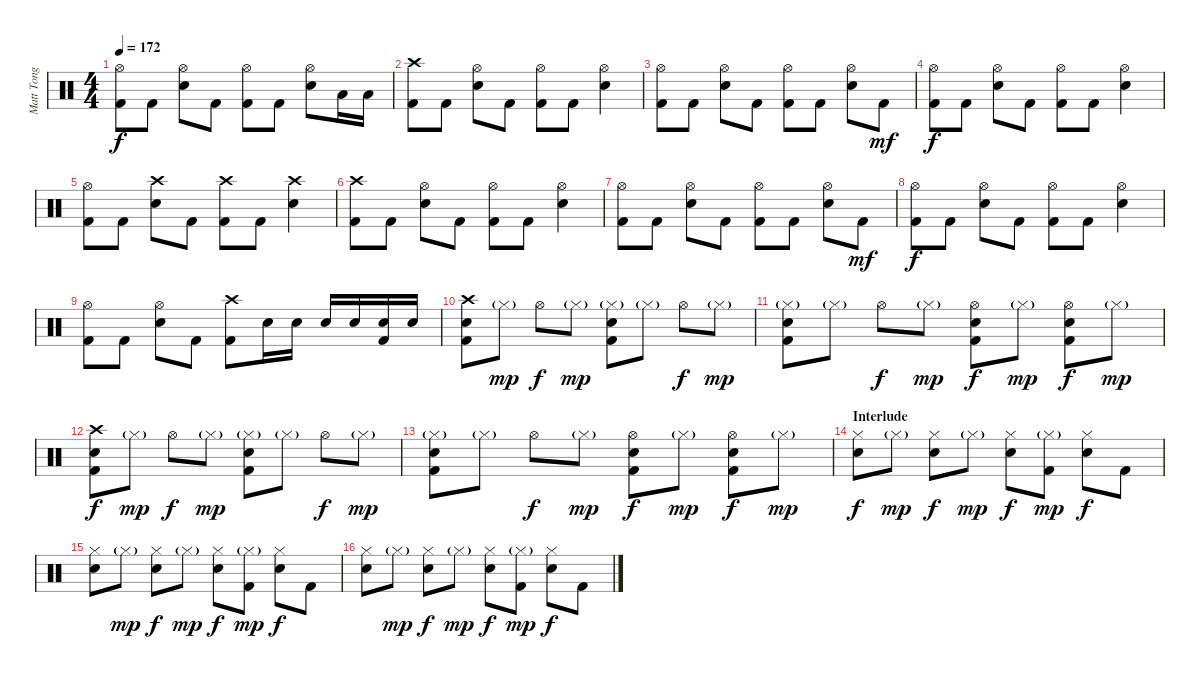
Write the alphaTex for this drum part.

\track ("Matt Tong" "Matt Tong") {instrument percussion}
\staff {score}
\articulation defaults
\ts (4 4)
\tempo 172
\clef neutral
\ks c
("Hi-Hat (open)" "Kick (hit) 2").8{dy f} "Kick (hit) 2".8 ("Hi-Hat (open)" "Snare (hit) 2").8 "Kick (hit) 2".8 ("Hi-Hat (open)" "Kick (hit) 2").8 "Kick (hit) 2".8 ("Hi-Hat (open)" "Snare (hit) 2").8 "Low Tom (hit)".16 "Low Tom (hit)".16 |
("Crash high (hit)" "Kick (hit) 2").8 "Kick (hit) 2".8 ("Hi-Hat (open)" "Snare (hit) 2").8 "Kick (hit) 2".8 ("Hi-Hat (open)" "Kick (hit) 2").8 "Kick (hit) 2".8 ("Hi-Hat (open)" "Snare (hit) 2").4 |
("Hi-Hat (open)" "Kick (hit) 2").8 "Kick (hit) 2".8 ("Hi-Hat (open)" "Snare (hit) 2").8 "Kick (hit) 2".8 ("Hi-Hat (open)" "Kick (hit) 2").8 "Kick (hit) 2".8 ("Hi-Hat (open)" "Snare (hit) 2").8 "Kick (hit) 2".8{dy mf} |
("Hi-Hat (open)" "Kick (hit) 2").8{dy f} "Kick (hit) 2".8 ("Hi-Hat (open)" "Snare (hit) 2").8 "Kick (hit) 2".8 ("Hi-Hat (open)" "Kick (hit) 2").8 "Kick (hit) 2".8 ("Hi-Hat (open)" "Snare (hit) 2").4 |
("Hi-Hat (open)" "Kick (hit) 2").8 "Kick (hit) 2".8 ("Crash high (hit)" "Snare (hit) 2").8 "Kick (hit) 2".8 ("Crash high (hit)" "Kick (hit) 2").8 "Kick (hit) 2".8 ("Crash high (hit)" "Snare (hit) 2").4 |
("Crash high (hit)" "Kick (hit) 2").8 "Kick (hit) 2".8 ("Hi-Hat (open)" "Snare (hit) 2").8 "Kick (hit) 2".8 ("Hi-Hat (open)" "Kick (hit) 2").8 "Kick (hit) 2".8 ("Hi-Hat (open)" "Snare (hit) 2").4 |
("Hi-Hat (open)" "Kick (hit) 2").8 "Kick (hit) 2".8 ("Hi-Hat (open)" "Snare (hit) 2").8 "Kick (hit) 2".8 ("Hi-Hat (open)" "Kick (hit) 2").8 "Kick (hit) 2".8 ("Hi-Hat (open)" "Snare (hit) 2").8 "Kick (hit) 2".8{dy mf} |
("Hi-Hat (open)" "Kick (hit) 2").8{dy f} "Kick (hit) 2".8 ("Hi-Hat (open)" "Snare (hit) 2").8 "Kick (hit) 2".8 ("Hi-Hat (open)" "Kick (hit) 2").8 "Kick (hit) 2".8 ("Hi-Hat (open)" "Snare (hit) 2").4 |
("Hi-Hat (open)" "Kick (hit) 2").8 "Kick (hit) 2".8 ("Hi-Hat (open)" "Snare (hit) 2").8 "Kick (hit) 2".8 ("Crash high (hit)" "Kick (hit) 2").8 "Snare (hit) 2".16 "Snare (hit) 2".16 "Snare (hit) 2".16 "Snare (hit) 2".16 ("Snare (hit) 2" "Kick (hit) 2").16 "Snare (hit) 2".16 |
("Crash high (hit)" "Snare (hit) 2" "Kick (hit) 2").8 "Hi-Hat (closed)"{g}.8{dy mp} "Hi-Hat (open)".8{dy f} "Hi-Hat (closed)"{g}.8{dy mp} ("Hi-Hat (closed)"{g} "Snare (hit) 2" "Kick (hit) 2").8 "Hi-Hat (closed)"{g}.8 "Hi-Hat (open)".8{dy f} "Hi-Hat (closed)"{g}.8{dy mp} |
("Hi-Hat (closed)"{g} "Snare (hit) 2" "Kick (hit) 2").8 "Hi-Hat (closed)"{g}.8 "Hi-Hat (open)".8{dy f} "Hi-Hat (closed)"{g}.8{dy mp} ("Hi-Hat (open)" "Snare (hit) 2" "Kick (hit) 2").8{dy f} "Hi-Hat (closed)"{g}.8{dy mp} ("Hi-Hat (open)" "Snare (hit) 2" "Kick (hit) 2").8{dy f} "Hi-Hat (closed)"{g}.8{dy mp} |
("Crash high (hit)" "Snare (hit) 2" "Kick (hit) 2").8{dy f} "Hi-Hat (closed)"{g}.8{dy mp} "Hi-Hat (open)".8{dy f} "Hi-Hat (closed)"{g}.8{dy mp} ("Hi-Hat (closed)"{g} "Snare (hit) 2" "Kick (hit) 2").8 "Hi-Hat (closed)"{g}.8 "Hi-Hat (open)".8{dy f} "Hi-Hat (closed)"{g}.8{dy mp} |
("Hi-Hat (closed)"{g} "Snare (hit) 2" "Kick (hit) 2").8 "Hi-Hat (closed)"{g}.8 "Hi-Hat (open)".8{dy f} "Hi-Hat (closed)"{g}.8{dy mp} ("Hi-Hat (open)" "Snare (hit) 2" "Kick (hit) 2").8{dy f} "Hi-Hat (closed)"{g}.8{dy mp} ("Hi-Hat (open)" "Snare (hit) 2" "Kick (hit) 2").8{dy f} "Hi-Hat (closed)"{g}.8{dy mp} |
\section ("" "Interlude")
("Hi-Hat (closed)" "Snare (hit) 2").8{dy f} "Hi-Hat (closed)"{g}.8{dy mp} ("Hi-Hat (closed)" "Snare (hit) 2").8{dy f} "Hi-Hat (closed)"{g}.8{dy mp} ("Hi-Hat (closed)" "Snare (hit) 2").8{dy f} ("Hi-Hat (closed)"{g} "Kick (hit) 2").8{dy mp} ("Hi-Hat (closed)" "Snare (hit) 2").8{dy f} "Kick (hit) 2".8 |
("Hi-Hat (closed)" "Snare (hit) 2").8 "Hi-Hat (closed)"{g}.8{dy mp} ("Hi-Hat (closed)" "Snare (hit) 2").8{dy f} "Hi-Hat (closed)"{g}.8{dy mp} ("Hi-Hat (closed)" "Snare (hit) 2").8{dy f} ("Hi-Hat (closed)"{g} "Kick (hit) 2").8{dy mp} ("Hi-Hat (closed)" "Snare (hit) 2").8{dy f} "Kick (hit) 2".8 |
("Hi-Hat (closed)" "Snare (hit) 2").8 "Hi-Hat (closed)"{g}.8{dy mp} ("Hi-Hat (closed)" "Snare (hit) 2").8{dy f} "Hi-Hat (closed)"{g}.8{dy mp} ("Hi-Hat (closed)" "Snare (hit) 2").8{dy f} ("Hi-Hat (closed)"{g} "Kick (hit) 2").8{dy mp} ("Hi-Hat (closed)" "Snare (hit) 2").8{dy f} "Kick (hit) 2".8
